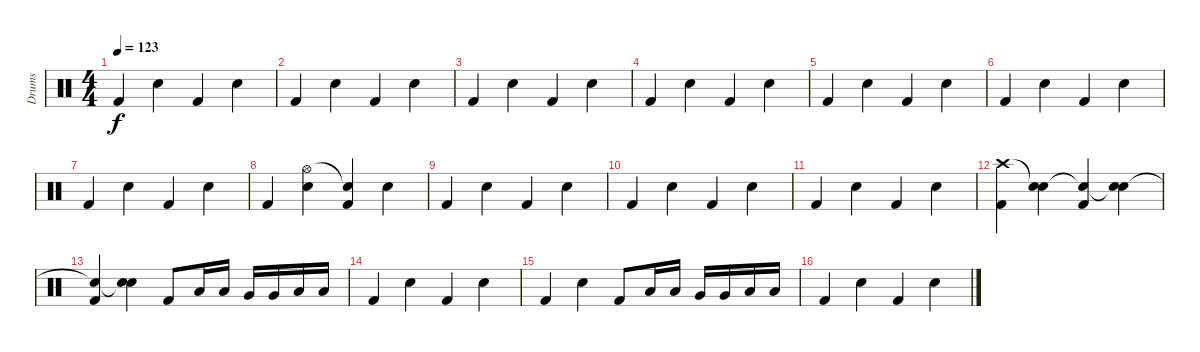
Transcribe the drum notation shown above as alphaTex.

\track ("Drums" "Drums") {instrument percussion}
\staff {score}
\articulation defaults
\ts (4 4)
\tempo 123
\clef neutral
\ks c "Kick (hit) 2".4{dy f} "Electric Snare (hit)".4 "Kick (hit) 2".4 "Electric Snare (hit)".4
|
"Kick (hit) 2".4 "Electric Snare (hit)".4 "Kick (hit) 2".4 "Electric Snare (hit)".4 |
"Kick (hit) 2".4 "Electric Snare (hit)".4 "Kick (hit) 2".4 "Electric Snare (hit)".4 |
"Kick (hit) 2".4 "Electric Snare (hit)".4 "Kick (hit) 2".4 "Electric Snare (hit)".4 |
"Kick (hit) 2".4 "Electric Snare (hit)".4 "Kick (hit) 2".4 "Electric Snare (hit)".4 |
"Kick (hit) 2".4 "Electric Snare (hit)".4 "Kick (hit) 2".4 "Electric Snare (hit)".4 |
"Kick (hit) 2".4 "Electric Snare (hit)".4 "Kick (hit) 2".4 "Electric Snare (hit)".4 |
"Kick (hit) 2".4 ("Hi-Hat (open)" "Electric Snare (hit)").4 ("Snare (hit)"{t} "Kick (hit) 2").4 "Electric Snare (hit)".4 |
"Kick (hit) 2".4 "Electric Snare (hit)".4 "Kick (hit) 2".4 "Electric Snare (hit)".4 |
"Kick (hit) 2".4 "Electric Snare (hit)".4 "Kick (hit) 2".4 "Electric Snare (hit)".4 |
"Kick (hit) 2".4 "Electric Snare (hit)".4 "Kick (hit) 2".4 "Electric Snare (hit)".4 |
("Crash high (hit)" "Kick (hit) 2").4 ("Snare (hit)"{t} "Electric Snare (hit)").4 ("Snare (hit)"{t} "Kick (hit) 2").4 ("Snare (hit)"{t} "Electric Snare (hit)").4 |
("Snare (hit)"{t} "Kick (hit) 2").4 ("Snare (hit)"{t} "Electric Snare (hit)").4 "Kick (hit) 2".8 "Low Tom (hit)".16 "Low Tom (hit)".16 "Very Low Tom (hit)".16 "Very Low Tom (hit)".16 "Low Floor Tom (hit)".16 "Low Floor Tom (hit)".16 |
"Kick (hit) 2".4 "Electric Snare (hit)".4 "Kick (hit) 2".4 "Electric Snare (hit)".4 |
"Kick (hit) 2".4 "Electric Snare (hit)".4 "Kick (hit) 2".8 "Low Tom (hit)".16 "Low Tom (hit)".16 "Very Low Tom (hit)".16 "Very Low Tom (hit)".16 "Low Floor Tom (hit)".16 "Low Floor Tom (hit)".16 |
"Kick (hit) 2".4 "Electric Snare (hit)".4 "Kick (hit) 2".4 "Electric Snare (hit)".4
